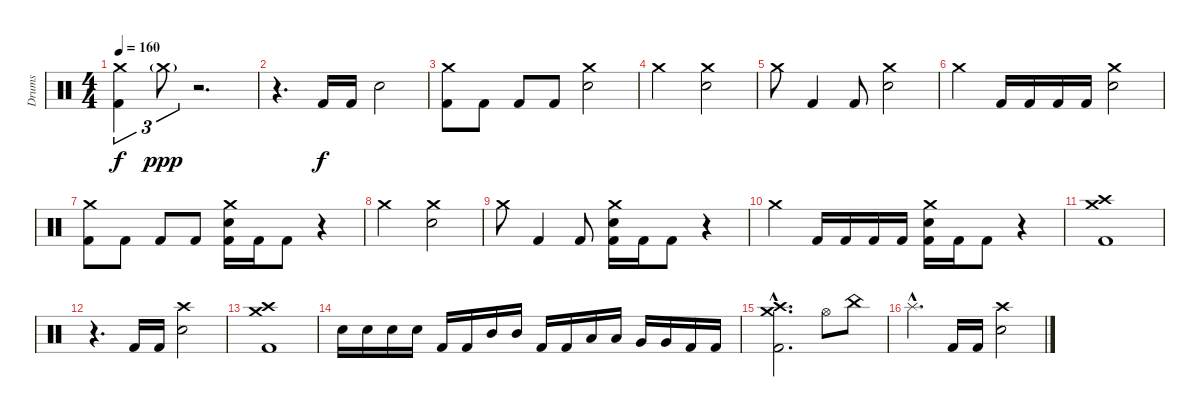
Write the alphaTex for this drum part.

\track ("Drums" "Drums") {instrument percussion}
\staff {score}
\articulation defaults
\ts (4 4)
\section ("" "")
\tempo 160
\clef neutral
\ks c
("Crash medium (hit)" "Kick (hit) 2").4{tu (3 2) dy f} "Crash medium (hit)"{g}.8{tu (3 2) dy ppp} r.2{d} |
r.4{d} "Kick (hit) 2".16{dy f} "Kick (hit) 2".16 "Electric Snare (hit)".2 |
("Crash medium (hit)" "Kick (hit) 2").8 "Kick (hit) 2".8 "Kick (hit) 2".8 "Kick (hit) 2".8 ("Crash medium (hit)" "Electric Snare (hit)").2 |
"Crash medium (hit)".2 ("Crash medium (hit)" "Electric Snare (hit)").2 |
"Crash medium (hit)".8 "Kick (hit) 2".4 "Kick (hit) 2".8 ("Crash medium (hit)" "Electric Snare (hit)").2 |
"Crash medium (hit)".4 "Kick (hit) 2".16 "Kick (hit) 2".16 "Kick (hit) 2".16 "Kick (hit) 2".16 ("Crash medium (hit)" "Electric Snare (hit)").2 |
("Crash medium (hit)" "Kick (hit) 2").8 "Kick (hit) 2".8 "Kick (hit) 2".8 "Kick (hit) 2".8 ("Crash medium (hit)" "Electric Snare (hit)" "Kick (hit) 2").16 "Kick (hit) 2".16 "Kick (hit) 2".8 r.4 |
"Crash medium (hit)".2 ("Crash medium (hit)" "Electric Snare (hit)").2 |
"Crash medium (hit)".8 "Kick (hit) 2".4 "Kick (hit) 2".8 ("Crash medium (hit)" "Electric Snare (hit)" "Kick (hit) 2").16 "Kick (hit) 2".16 "Kick (hit) 2".8 r.4 |
"Crash medium (hit)".4 "Kick (hit) 2".16 "Kick (hit) 2".16 "Kick (hit) 2".16 "Kick (hit) 2".16 ("Crash medium (hit)" "Electric Snare (hit)" "Kick (hit) 2").16 "Kick (hit) 2".16 "Kick (hit) 2".8 r.4 |
("Crash medium (hit)" "Crash high (hit)" "Kick (hit) 2").1 |
r.4{d} "Kick (hit) 2".16 "Kick (hit) 2".16 ("Crash high (hit)" "Electric Snare (hit)").2 |
("Crash medium (hit)" "Crash high (hit)" "Kick (hit) 2").1 |
"Electric Snare (hit)".16 "Electric Snare (hit)".16 "Electric Snare (hit)".16 "Electric Snare (hit)".16 "Kick (hit) 2".16 "Kick (hit) 2".16 "Mid Tom (hit)".16 "Mid Tom (hit)".16 "Kick (hit) 2".16 "Kick (hit) 2".16 "Low Tom (hit)".16 "Low Tom (hit)".16 "Very Low Tom (hit)".16 "Very Low Tom (hit)".16 "Kick (hit) 2".16 "Kick (hit) 2".16 |
("Crash medium (hit)"{hac} "Crash high (hit)"{hac} "Kick (hit) 2"{hac}).2{d} "Hi-Hat (open)".8 "China (hit)".8 |
"Splash (hit)"{hac}.4{d} "Kick (hit) 2".16 "Kick (hit) 2".16 ("Crash high (hit)" "Electric Snare (hit)").2
